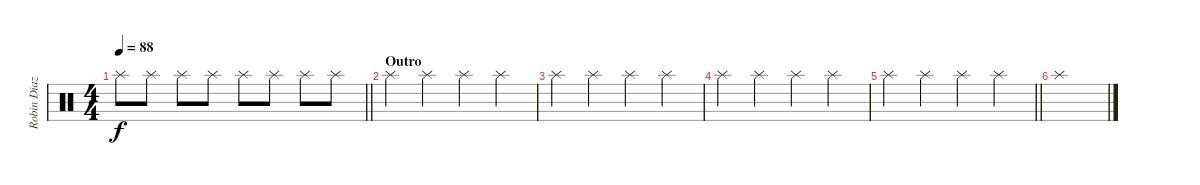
\track ("Robin Diaz (Drums)" "Robin Diaz") {instrument percussion}
\staff {score}
\articulation defaults
\ts (4 4)
\tempo 88
\clef neutral
\barLineRight lightlight
\ks c "Splash (hit)".8{dy f} "Splash (hit)".8 "Splash (hit)".8 "Splash (hit)".8 "Splash (hit)".8 "Splash (hit)".8 "Splash (hit)".8 "Splash (hit)".8
|
\section ("" "Outro")
"Splash (hit)".4 "Splash (hit)".4 "Splash (hit)".4 "Splash (hit)".4 |
"Splash (hit)".4 "Splash (hit)".4 "Splash (hit)".4 "Splash (hit)".4 |
"Splash (hit)".4 "Splash (hit)".4 "Splash (hit)".4 "Splash (hit)".4 |
\barLineRight lightlight "Splash (hit)".4 "Splash (hit)".4 "Splash (hit)".4 "Splash (hit)".4
|
"Splash (hit)".1
